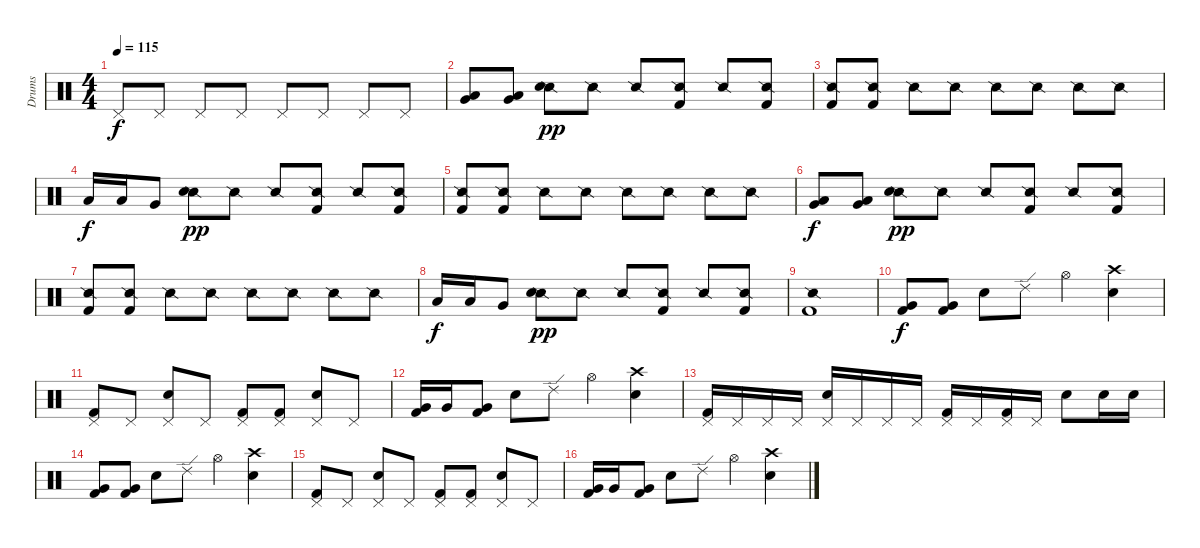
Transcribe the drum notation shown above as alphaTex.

\track ("Drums" "Drums") {instrument percussion}
\staff {score}
\articulation defaults
\ts (4 4)
\tempo 115
\clef neutral
\ks c "Pedal Hi-Hat (hit)".8{dy f} "Pedal Hi-Hat (hit)".8 "Pedal Hi-Hat (hit)".8 "Pedal Hi-Hat (hit)".8 "Pedal Hi-Hat (hit)".8 "Pedal Hi-Hat (hit)".8 "Pedal Hi-Hat (hit)".8 "Pedal Hi-Hat (hit)".8
|
("Very Low Tom (hit)" "Low Tom (hit)").8 ("Very Low Tom (hit)" "Low Tom (hit)").8 ("Snare (side stick) 2" "Electric Snare (hit)").8{dy pp} "Snare (side stick) 2".8 "Snare (side stick) 2".8 ("Snare (side stick) 2" "Kick (hit) 2").8 "Snare (side stick) 2".8 ("Snare (side stick) 2" "Kick (hit) 2").8 |
("Snare (side stick) 2" "Kick (hit) 2").8 ("Snare (side stick) 2" "Kick (hit) 2").8 "Snare (side stick) 2".8 "Snare (side stick) 2".8 "Snare (side stick) 2".8 "Snare (side stick) 2".8 "Snare (side stick) 2".8 "Snare (side stick) 2".8 |
"Low Tom (hit)".16{dy f} "Low Tom (hit)".16 "Very Low Tom (hit)".8 ("Snare (side stick) 2" "Electric Snare (hit)").8{dy pp} "Snare (side stick) 2".8 "Snare (side stick) 2".8 ("Snare (side stick) 2" "Kick (hit) 2").8 "Snare (side stick) 2".8 ("Snare (side stick) 2" "Kick (hit) 2").8 |
("Snare (side stick) 2" "Kick (hit) 2").8 ("Snare (side stick) 2" "Kick (hit) 2").8 "Snare (side stick) 2".8 "Snare (side stick) 2".8 "Snare (side stick) 2".8 "Snare (side stick) 2".8 "Snare (side stick) 2".8 "Snare (side stick) 2".8 |
("Very Low Tom (hit)" "Low Tom (hit)").8{dy f} ("Very Low Tom (hit)" "Low Tom (hit)").8 ("Snare (side stick) 2" "Electric Snare (hit)").8{dy pp} "Snare (side stick) 2".8 "Snare (side stick) 2".8 ("Snare (side stick) 2" "Kick (hit) 2").8 "Snare (side stick) 2".8 ("Snare (side stick) 2" "Kick (hit) 2").8 |
("Snare (side stick) 2" "Kick (hit) 2").8 ("Snare (side stick) 2" "Kick (hit) 2").8 "Snare (side stick) 2".8 "Snare (side stick) 2".8 "Snare (side stick) 2".8 "Snare (side stick) 2".8 "Snare (side stick) 2".8 "Snare (side stick) 2".8 |
"Low Tom (hit)".16{dy f} "Low Tom (hit)".16 "Very Low Tom (hit)".8 ("Snare (side stick) 2" "Electric Snare (hit)").8{dy pp} "Snare (side stick) 2".8 "Snare (side stick) 2".8 ("Snare (side stick) 2" "Kick (hit) 2").8 "Snare (side stick) 2".8 ("Snare (side stick) 2" "Kick (hit) 2").8 |
("Snare (side stick) 2" "Kick (hit) 2").1 |
("Very Low Tom (hit)" "Kick (hit) 2").8{dy f} ("Very Low Tom (hit)" "Kick (hit) 2").8 "Electric Snare (hit)".8 "Ride (edge) 2".8 "Hi-Hat (open)".4 ("Crash high (hit)" "Electric Snare (hit)").4 |
("Pedal Hi-Hat (hit)" "Kick (hit) 2").8 "Pedal Hi-Hat (hit)".8 ("Pedal Hi-Hat (hit)" "Electric Snare (hit)").8 "Pedal Hi-Hat (hit)".8 ("Pedal Hi-Hat (hit)" "Kick (hit) 2").8 ("Pedal Hi-Hat (hit)" "Kick (hit) 2").8 ("Pedal Hi-Hat (hit)" "Electric Snare (hit)").8 "Pedal Hi-Hat (hit)".8 |
("Very Low Tom (hit)" "Kick (hit) 2").16 "Very Low Tom (hit)".16 ("Very Low Tom (hit)" "Kick (hit) 2").8 "Electric Snare (hit)".8 "Ride (edge) 2".8 "Hi-Hat (open)".4 ("Crash high (hit)" "Electric Snare (hit)").4 |
("Pedal Hi-Hat (hit)" "Kick (hit) 2").16 "Pedal Hi-Hat (hit)".16 "Pedal Hi-Hat (hit)".16 "Pedal Hi-Hat (hit)".16 ("Pedal Hi-Hat (hit)" "Electric Snare (hit)").16 "Pedal Hi-Hat (hit)".16 "Pedal Hi-Hat (hit)".16 "Pedal Hi-Hat (hit)".16 ("Pedal Hi-Hat (hit)" "Kick (hit) 2").16 "Pedal Hi-Hat (hit)".16 ("Pedal Hi-Hat (hit)" "Kick (hit) 2").16 "Pedal Hi-Hat (hit)".16 "Electric Snare (hit)".8 "Electric Snare (hit)".16 "Electric Snare (hit)".16 |
("Very Low Tom (hit)" "Kick (hit) 2").8 ("Very Low Tom (hit)" "Kick (hit) 2").8 "Electric Snare (hit)".8 "Ride (edge) 2".8 "Hi-Hat (open)".4 ("Crash high (hit)" "Electric Snare (hit)").4 |
("Pedal Hi-Hat (hit)" "Kick (hit) 2").8 "Pedal Hi-Hat (hit)".8 ("Pedal Hi-Hat (hit)" "Electric Snare (hit)").8 "Pedal Hi-Hat (hit)".8 ("Pedal Hi-Hat (hit)" "Kick (hit) 2").8 ("Pedal Hi-Hat (hit)" "Kick (hit) 2").8 ("Pedal Hi-Hat (hit)" "Electric Snare (hit)").8 "Pedal Hi-Hat (hit)".8 |
("Very Low Tom (hit)" "Kick (hit) 2").16 "Very Low Tom (hit)".16 ("Very Low Tom (hit)" "Kick (hit) 2").8 "Electric Snare (hit)".8 "Ride (edge) 2".8 "Hi-Hat (open)".4 ("Crash high (hit)" "Electric Snare (hit)").4
